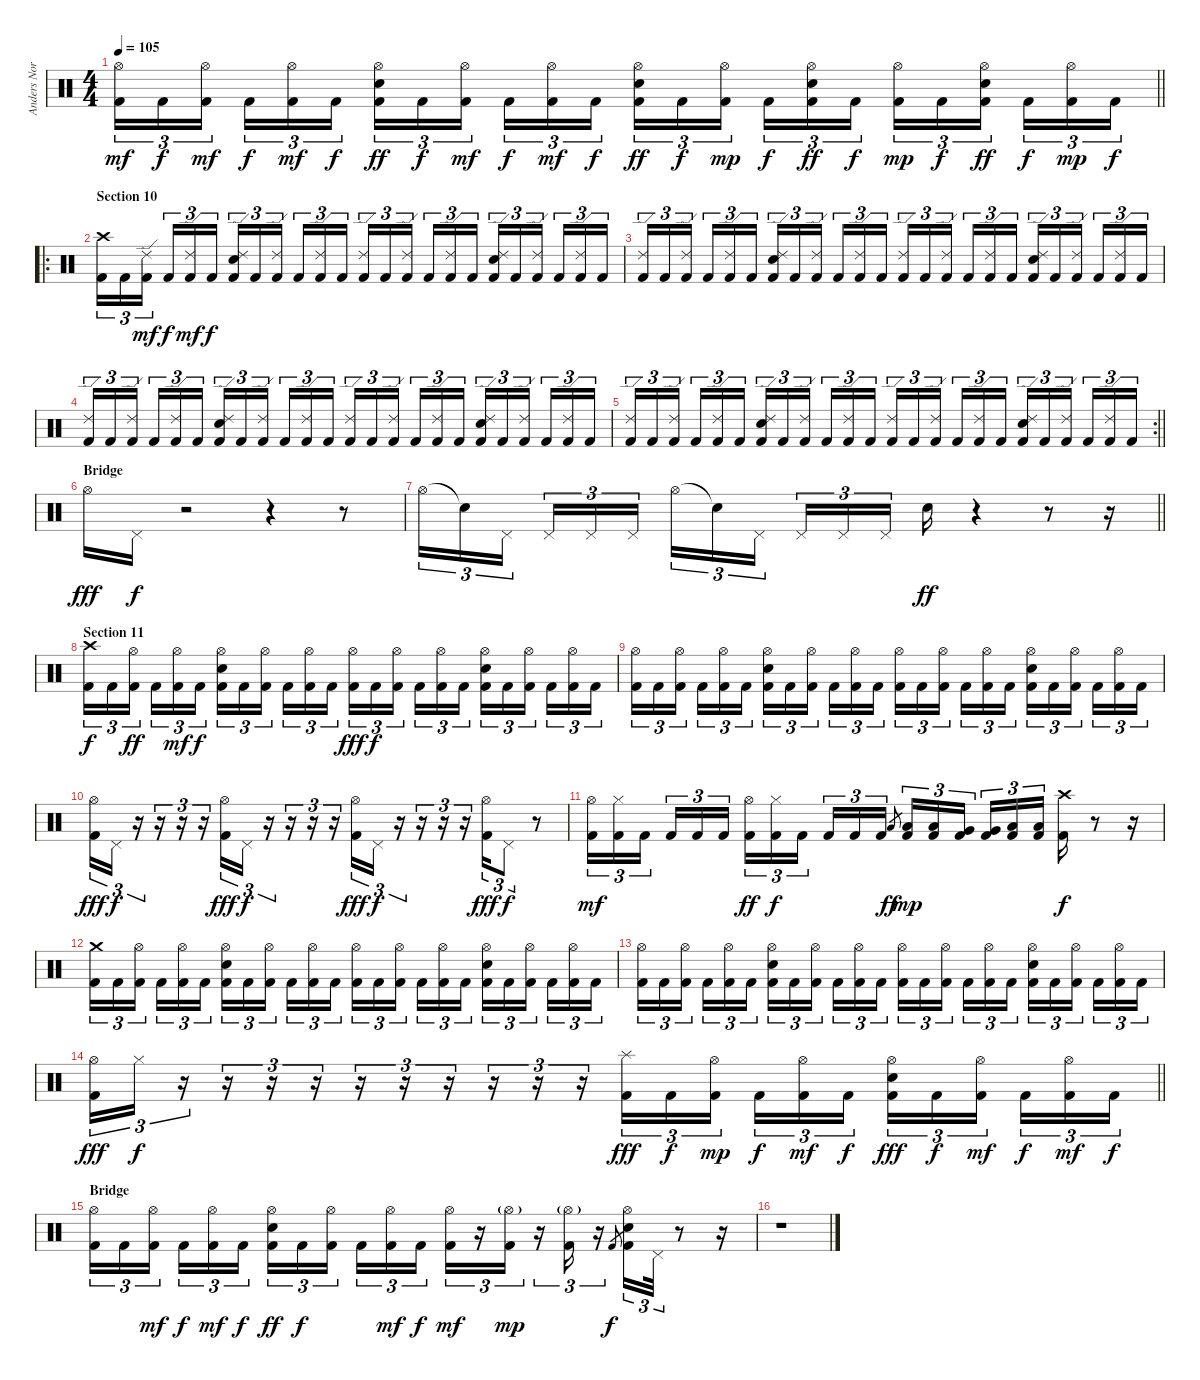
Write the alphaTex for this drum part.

\track ("Anders Nordin" "Anders Nor") {instrument percussion}
\staff {score}
\articulation defaults
\ts (4 4)
\tempo 105
\clef neutral
\barLineRight lightlight
\ks c
("Hi-Hat (open)" "Kick (hit) 2").16{tu (3 2) dy mf} "Kick (hit) 2".16{tu (3 2) dy f} ("Hi-Hat (open)" "Kick (hit) 2").16{tu (3 2) dy mf beam splitsecondary} "Kick (hit) 2".16{tu (3 2) dy f} ("Hi-Hat (open)" "Kick (hit) 2").16{tu (3 2) dy mf} "Kick (hit) 2".16{tu (3 2) dy f} ("Hi-Hat (open)" "Snare (hit) 2" "Kick (hit) 2").16{tu (3 2) dy ff} "Kick (hit) 2".16{tu (3 2) dy f} ("Hi-Hat (open)" "Kick (hit) 2").16{tu (3 2) dy mf beam splitsecondary} "Kick (hit) 2".16{tu (3 2) dy f} ("Hi-Hat (open)" "Kick (hit) 2").16{tu (3 2) dy mf} "Kick (hit) 2".16{tu (3 2) dy f} ("Hi-Hat (open)" "Snare (hit) 2" "Kick (hit) 2").16{tu (3 2) dy ff} "Kick (hit) 2".16{tu (3 2) dy f} ("Hi-Hat (open)" "Kick (hit) 2").16{tu (3 2) dy mp beam splitsecondary} "Kick (hit) 2".16{tu (3 2) dy f} ("Hi-Hat (open)" "Snare (hit) 2" "Kick (hit) 2").16{tu (3 2) dy ff} "Kick (hit) 2".16{tu (3 2) dy f} ("Hi-Hat (open)" "Kick (hit) 2").16{tu (3 2) dy mp} "Kick (hit) 2".16{tu (3 2) dy f} ("Hi-Hat (open)" "Snare (hit) 2" "Kick (hit) 2").16{tu (3 2) dy ff beam splitsecondary} "Kick (hit) 2".16{tu (3 2) dy f} ("Hi-Hat (open)" "Kick (hit) 2").16{tu (3 2) dy mp} "Kick (hit) 2".16{tu (3 2) dy f} |
\ro
\section ("" "Section 10")
("Crash high (hit)" "Kick (hit) 2").16{tu (3 2)} "Kick (hit) 2".16{tu (3 2)} ("Ride (edge) 2" "Kick (hit) 2").16{tu (3 2) dy mf beam splitsecondary} "Kick (hit) 2".16{tu (3 2) dy f} ("Ride (edge) 2" "Kick (hit) 2").16{tu (3 2) dy mf} "Kick (hit) 2".16{tu (3 2) dy f} ("Ride (edge) 2" "Snare (hit) 2" "Kick (hit) 2").16{tu (3 2)} "Kick (hit) 2".16{tu (3 2)} ("Ride (edge) 2" "Kick (hit) 2").16{tu (3 2) beam splitsecondary} "Kick (hit) 2".16{tu (3 2)} ("Ride (edge) 2" "Kick (hit) 2").16{tu (3 2)} "Kick (hit) 2".16{tu (3 2)} ("Ride (edge) 2" "Kick (hit) 2").16{tu (3 2)} "Kick (hit) 2".16{tu (3 2)} ("Ride (edge) 2" "Kick (hit) 2").16{tu (3 2) beam splitsecondary} "Kick (hit) 2".16{tu (3 2)} ("Ride (edge) 2" "Kick (hit) 2").16{tu (3 2)} "Kick (hit) 2".16{tu (3 2)} ("Ride (edge) 2" "Snare (hit) 2" "Kick (hit) 2").16{tu (3 2)} "Kick (hit) 2".16{tu (3 2)} ("Ride (edge) 2" "Kick (hit) 2").16{tu (3 2) beam splitsecondary} "Kick (hit) 2".16{tu (3 2)} ("Ride (edge) 2" "Kick (hit) 2").16{tu (3 2)} "Kick (hit) 2".16{tu (3 2)} |
("Ride (edge) 2" "Kick (hit) 2").16{tu (3 2)} "Kick (hit) 2".16{tu (3 2)} ("Ride (edge) 2" "Kick (hit) 2").16{tu (3 2) beam splitsecondary} "Kick (hit) 2".16{tu (3 2)} ("Ride (edge) 2" "Kick (hit) 2").16{tu (3 2)} "Kick (hit) 2".16{tu (3 2)} ("Ride (edge) 2" "Snare (hit) 2" "Kick (hit) 2").16{tu (3 2)} "Kick (hit) 2".16{tu (3 2)} ("Ride (edge) 2" "Kick (hit) 2").16{tu (3 2) beam splitsecondary} "Kick (hit) 2".16{tu (3 2)} ("Ride (edge) 2" "Kick (hit) 2").16{tu (3 2)} "Kick (hit) 2".16{tu (3 2)} ("Ride (edge) 2" "Kick (hit) 2").16{tu (3 2)} "Kick (hit) 2".16{tu (3 2)} ("Ride (edge) 2" "Kick (hit) 2").16{tu (3 2) beam splitsecondary} "Kick (hit) 2".16{tu (3 2)} ("Ride (edge) 2" "Kick (hit) 2").16{tu (3 2)} "Kick (hit) 2".16{tu (3 2)} ("Ride (edge) 2" "Snare (hit) 2" "Kick (hit) 2").16{tu (3 2)} "Kick (hit) 2".16{tu (3 2)} ("Ride (edge) 2" "Kick (hit) 2").16{tu (3 2) beam splitsecondary} "Kick (hit) 2".16{tu (3 2)} ("Ride (edge) 2" "Kick (hit) 2").16{tu (3 2)} "Kick (hit) 2".16{tu (3 2)} |
("Ride (edge) 2" "Kick (hit) 2").16{tu (3 2)} "Kick (hit) 2".16{tu (3 2)} ("Ride (edge) 2" "Kick (hit) 2").16{tu (3 2) beam splitsecondary} "Kick (hit) 2".16{tu (3 2)} ("Ride (edge) 2" "Kick (hit) 2").16{tu (3 2)} "Kick (hit) 2".16{tu (3 2)} ("Ride (edge) 2" "Snare (hit) 2" "Kick (hit) 2").16{tu (3 2)} "Kick (hit) 2".16{tu (3 2)} ("Ride (edge) 2" "Kick (hit) 2").16{tu (3 2) beam splitsecondary} "Kick (hit) 2".16{tu (3 2)} ("Ride (edge) 2" "Kick (hit) 2").16{tu (3 2)} "Kick (hit) 2".16{tu (3 2)} ("Ride (edge) 2" "Kick (hit) 2").16{tu (3 2)} "Kick (hit) 2".16{tu (3 2)} ("Ride (edge) 2" "Kick (hit) 2").16{tu (3 2) beam splitsecondary} "Kick (hit) 2".16{tu (3 2)} ("Ride (edge) 2" "Kick (hit) 2").16{tu (3 2)} "Kick (hit) 2".16{tu (3 2)} ("Ride (edge) 2" "Snare (hit) 2" "Kick (hit) 2").16{tu (3 2)} "Kick (hit) 2".16{tu (3 2)} ("Ride (edge) 2" "Kick (hit) 2").16{tu (3 2) beam splitsecondary} "Kick (hit) 2".16{tu (3 2)} ("Ride (edge) 2" "Kick (hit) 2").16{tu (3 2)} "Kick (hit) 2".16{tu (3 2)} |
\rc 2
\barLineRight lightlight
("Ride (edge) 2" "Kick (hit) 2").16{tu (3 2)} "Kick (hit) 2".16{tu (3 2)} ("Ride (edge) 2" "Kick (hit) 2").16{tu (3 2) beam splitsecondary} "Kick (hit) 2".16{tu (3 2)} ("Ride (edge) 2" "Kick (hit) 2").16{tu (3 2)} "Kick (hit) 2".16{tu (3 2)} ("Ride (edge) 2" "Snare (hit) 2" "Kick (hit) 2").16{tu (3 2)} "Kick (hit) 2".16{tu (3 2)} ("Ride (edge) 2" "Kick (hit) 2").16{tu (3 2) beam splitsecondary} "Kick (hit) 2".16{tu (3 2)} ("Ride (edge) 2" "Kick (hit) 2").16{tu (3 2)} "Kick (hit) 2".16{tu (3 2)} ("Ride (edge) 2" "Kick (hit) 2").16{tu (3 2)} "Kick (hit) 2".16{tu (3 2)} ("Ride (edge) 2" "Kick (hit) 2").16{tu (3 2) beam splitsecondary} "Kick (hit) 2".16{tu (3 2)} ("Ride (edge) 2" "Kick (hit) 2").16{tu (3 2)} "Kick (hit) 2".16{tu (3 2)} ("Ride (edge) 2" "Snare (hit) 2" "Kick (hit) 2").16{tu (3 2)} "Kick (hit) 2".16{tu (3 2)} ("Ride (edge) 2" "Kick (hit) 2").16{tu (3 2) beam splitsecondary} "Kick (hit) 2".16{tu (3 2)} ("Ride (edge) 2" "Kick (hit) 2").16{tu (3 2)} "Kick (hit) 2".16{tu (3 2)} |
\section ("" "Bridge")
"Hi-Hat (open)".16{dy fff} "Pedal Hi-Hat (hit)".16{dy f} r.2 r.4 r.8 |
\barLineRight lightlight "Hi-Hat (open)".16{tu (3 2)} "Snare (hit)"{t}.16{tu (3 2)} "Pedal Hi-Hat (hit)".16{tu (3 2) beam splitsecondary} "Pedal Hi-Hat (hit)".16{tu (3 2)} "Pedal Hi-Hat (hit)".16{tu (3 2)} "Pedal Hi-Hat (hit)".16{tu (3 2)} "Hi-Hat (open)".16{tu (3 2)} "Snare (hit)"{t}.16{tu (3 2)} "Pedal Hi-Hat (hit)".16{tu (3 2) beam splitsecondary} "Pedal Hi-Hat (hit)".16{tu (3 2)} "Pedal Hi-Hat (hit)".16{tu (3 2)} "Pedal Hi-Hat (hit)".16{tu (3 2)} "Snare (hit) 2".16{dy ff}
r.4 r.8 r.16 |
\section ("" "Section 11")
("Crash high (hit)" "Kick (hit) 2").16{tu (3 2) dy f} "Kick (hit) 2".16{tu (3 2)} ("Hi-Hat (open)" "Kick (hit) 2").16{tu (3 2) dy ff beam splitsecondary} "Kick (hit) 2".16{tu (3 2)} ("Hi-Hat (open)" "Kick (hit) 2").16{tu (3 2) dy mf} "Kick (hit) 2".16{tu (3 2) dy f} ("Hi-Hat (open)" "Snare (hit) 2" "Kick (hit) 2").16{tu (3 2)} "Kick (hit) 2".16{tu (3 2)} ("Hi-Hat (open)" "Kick (hit) 2").16{tu (3 2) beam splitsecondary} "Kick (hit) 2".16{tu (3 2)} ("Hi-Hat (open)" "Kick (hit) 2").16{tu (3 2)} "Kick (hit) 2".16{tu (3 2)} ("Hi-Hat (open)" "Kick (hit) 2").16{tu (3 2) dy fff} "Kick (hit) 2".16{tu (3 2) dy f} ("Hi-Hat (open)" "Kick (hit) 2").16{tu (3 2) beam splitsecondary} "Kick (hit) 2".16{tu (3 2)} ("Hi-Hat (open)" "Kick (hit) 2").16{tu (3 2)} "Kick (hit) 2".16{tu (3 2)} ("Hi-Hat (open)" "Snare (hit) 2" "Kick (hit) 2").16{tu (3 2)} "Kick (hit) 2".16{tu (3 2)} ("Hi-Hat (open)" "Kick (hit) 2").16{tu (3 2) beam splitsecondary} "Kick (hit) 2".16{tu (3 2)} ("Hi-Hat (open)" "Kick (hit) 2").16{tu (3 2)} "Kick (hit) 2".16{tu (3 2)} |
("Hi-Hat (open)" "Kick (hit) 2").16{tu (3 2)} "Kick (hit) 2".16{tu (3 2)} ("Hi-Hat (open)" "Kick (hit) 2").16{tu (3 2) beam splitsecondary} "Kick (hit) 2".16{tu (3 2)} ("Hi-Hat (open)" "Kick (hit) 2").16{tu (3 2)} "Kick (hit) 2".16{tu (3 2)} ("Hi-Hat (open)" "Snare (hit) 2" "Kick (hit) 2").16{tu (3 2)} "Kick (hit) 2".16{tu (3 2)} ("Hi-Hat (open)" "Kick (hit) 2").16{tu (3 2) beam splitsecondary} "Kick (hit) 2".16{tu (3 2)} ("Hi-Hat (open)" "Kick (hit) 2").16{tu (3 2)} "Kick (hit) 2".16{tu (3 2)} ("Hi-Hat (open)" "Kick (hit) 2").16{tu (3 2)} "Kick (hit) 2".16{tu (3 2)} ("Hi-Hat (open)" "Kick (hit) 2").16{tu (3 2) beam splitsecondary} "Kick (hit) 2".16{tu (3 2)} ("Hi-Hat (open)" "Kick (hit) 2").16{tu (3 2)} "Kick (hit) 2".16{tu (3 2)} ("Hi-Hat (open)" "Snare (hit) 2" "Kick (hit) 2").16{tu (3 2)} "Kick (hit) 2".16{tu (3 2)} ("Hi-Hat (open)" "Kick (hit) 2").16{tu (3 2) beam splitsecondary} "Kick (hit) 2".16{tu (3 2)} ("Hi-Hat (open)" "Kick (hit) 2").16{tu (3 2)} "Kick (hit) 2".16{tu (3 2)} |
("Hi-Hat (open)" "Kick (hit) 2").16{tu (3 2) dy fff} "Pedal Hi-Hat (hit)".16{tu (3 2) dy f} r.16{tu (3 2)} r.16{tu (3 2)} r.16{tu (3 2)} r.16{tu (3 2)} ("Hi-Hat (open)" "Kick (hit) 2").16{tu (3 2) dy fff} "Pedal Hi-Hat (hit)".16{tu (3 2) dy f} r.16{tu (3 2)} r.16{tu (3 2)} r.16{tu (3 2)} r.16{tu (3 2)} ("Hi-Hat (open)" "Kick (hit) 2").16{tu (3 2) dy fff} "Pedal Hi-Hat (hit)".16{tu (3 2) dy f} r.16{tu (3 2)} r.16{tu (3 2)} r.16{tu (3 2)} r.16{tu (3 2)} ("Hi-Hat (open)" "Kick (hit) 2").16{tu (3 2) dy fff} "Pedal Hi-Hat (hit)".8{tu (3 2) dy f} r.8 |
("Hi-Hat (open)" "Kick (hit) 2").16{tu (3 2) dy mf} ("Hi-Hat (closed)" "Kick (hit) 2").16{tu (3 2)} "Kick (hit) 2".16{tu (3 2) beam splitsecondary} "Kick (hit) 2".16{tu (3 2)} "Kick (hit) 2".16{tu (3 2)} "Kick (hit) 2".16{tu (3 2)} ("Hi-Hat (open)" "Kick (hit) 2").16{tu (3 2) dy ff} ("Hi-Hat (closed)" "Kick (hit) 2").16{tu (3 2) dy f} "Kick (hit) 2".16{tu (3 2) beam splitsecondary} "Kick (hit) 2".16{tu (3 2)} "Kick (hit) 2".16{tu (3 2)} "Kick (hit) 2".16{tu (3 2)} "Low Tom (hit)".8{gr dy ff} ("Low Tom (hit)" "Kick (hit) 2").16{tu (3 2) dy mp} ("Low Tom (hit)" "Kick (hit) 2").16{tu (3 2)} ("Very Low Tom (hit)" "Kick (hit) 2").16{tu (3 2) beam splitsecondary} ("Very Low Tom (hit)" "Kick (hit) 2").16{tu (3 2)} ("Low Floor Tom (hit)" "Kick (hit) 2").16{tu (3 2)} ("Low Floor Tom (hit)" "Kick (hit) 2").16{tu (3 2)} ("Crash high (hit)" "Kick (hit) 2").16{dy f} r.8 r.16 |
("Crash medium (hit)" "Kick (hit) 2").16{tu (3 2)} "Kick (hit) 2".16{tu (3 2)} ("Hi-Hat (open)" "Kick (hit) 2").16{tu (3 2) beam splitsecondary} "Kick (hit) 2".16{tu (3 2)} ("Hi-Hat (open)" "Kick (hit) 2").16{tu (3 2)} "Kick (hit) 2".16{tu (3 2)} ("Hi-Hat (open)" "Snare (hit) 2" "Kick (hit) 2").16{tu (3 2)} "Kick (hit) 2".16{tu (3 2)} ("Hi-Hat (open)" "Kick (hit) 2").16{tu (3 2) beam splitsecondary} "Kick (hit) 2".16{tu (3 2)} ("Hi-Hat (open)" "Kick (hit) 2").16{tu (3 2)} "Kick (hit) 2".16{tu (3 2)} ("Hi-Hat (open)" "Kick (hit) 2").16{tu (3 2)} "Kick (hit) 2".16{tu (3 2)} ("Hi-Hat (open)" "Kick (hit) 2").16{tu (3 2) beam splitsecondary} "Kick (hit) 2".16{tu (3 2)} ("Hi-Hat (open)" "Kick (hit) 2").16{tu (3 2)} "Kick (hit) 2".16{tu (3 2)} ("Hi-Hat (open)" "Snare (hit) 2" "Kick (hit) 2").16{tu (3 2)} "Kick (hit) 2".16{tu (3 2)} ("Hi-Hat (open)" "Kick (hit) 2").16{tu (3 2) beam splitsecondary} "Kick (hit) 2".16{tu (3 2)} ("Hi-Hat (open)" "Kick (hit) 2").16{tu (3 2)} "Kick (hit) 2".16{tu (3 2)} |
("Hi-Hat (open)" "Kick (hit) 2").16{tu (3 2)} "Kick (hit) 2".16{tu (3 2)} ("Hi-Hat (open)" "Kick (hit) 2").16{tu (3 2) beam splitsecondary} "Kick (hit) 2".16{tu (3 2)} ("Hi-Hat (open)" "Kick (hit) 2").16{tu (3 2)} "Kick (hit) 2".16{tu (3 2)} ("Hi-Hat (open)" "Snare (hit) 2" "Kick (hit) 2").16{tu (3 2)} "Kick (hit) 2".16{tu (3 2)} ("Hi-Hat (open)" "Kick (hit) 2").16{tu (3 2) beam splitsecondary} "Kick (hit) 2".16{tu (3 2)} ("Hi-Hat (open)" "Kick (hit) 2").16{tu (3 2)} "Kick (hit) 2".16{tu (3 2)} ("Hi-Hat (open)" "Kick (hit) 2").16{tu (3 2)} "Kick (hit) 2".16{tu (3 2)} ("Hi-Hat (open)" "Kick (hit) 2").16{tu (3 2) beam splitsecondary} "Kick (hit) 2".16{tu (3 2)} ("Hi-Hat (open)" "Kick (hit) 2").16{tu (3 2)} "Kick (hit) 2".16{tu (3 2)} ("Hi-Hat (open)" "Snare (hit) 2" "Kick (hit) 2").16{tu (3 2)} "Kick (hit) 2".16{tu (3 2)} ("Hi-Hat (open)" "Kick (hit) 2").16{tu (3 2) beam splitsecondary} "Kick (hit) 2".16{tu (3 2)} ("Hi-Hat (open)" "Kick (hit) 2").16{tu (3 2)} "Kick (hit) 2".16{tu (3 2)} |
\barLineRight lightlight
("Hi-Hat (open)" "Kick (hit) 2").16{tu (3 2) dy fff} "Hi-Hat (closed)".16{tu (3 2) dy f} r.16{tu (3 2)} r.16{tu (3 2)} r.16{tu (3 2)} r.16{tu (3 2)} r.16{tu (3 2)} r.16{tu (3 2)} r.16{tu (3 2)} r.16{tu (3 2)} r.16{tu (3 2)} r.16{tu (3 2)} ("Splash (hit)" "Kick (hit) 2").16{tu (3 2) dy fff} "Kick (hit) 2".16{tu (3 2) dy f} ("Hi-Hat (open)" "Kick (hit) 2").16{tu (3 2) dy mp beam splitsecondary} "Kick (hit) 2".16{tu (3 2) dy f} ("Hi-Hat (open)" "Kick (hit) 2").16{tu (3 2) dy mf} "Kick (hit) 2".16{tu (3 2) dy f} ("Hi-Hat (open)" "Snare (hit) 2" "Kick (hit) 2").16{tu (3 2) dy fff} "Kick (hit) 2".16{tu (3 2) dy f} ("Hi-Hat (open)" "Kick (hit) 2").16{tu (3 2) dy mf beam splitsecondary} "Kick (hit) 2".16{tu (3 2) dy f} ("Hi-Hat (open)" "Kick (hit) 2").16{tu (3 2) dy mf} "Kick (hit) 2".16{tu (3 2) dy f} |
\section ("" "Bridge")
("Hi-Hat (open)" "Kick (hit) 2").16{tu (3 2)} "Kick (hit) 2".16{tu (3 2)} ("Hi-Hat (open)" "Kick (hit) 2").16{tu (3 2) dy mf beam splitsecondary} "Kick (hit) 2".16{tu (3 2) dy f} ("Hi-Hat (open)" "Kick (hit) 2").16{tu (3 2) dy mf} "Kick (hit) 2".16{tu (3 2) dy f} ("Hi-Hat (open)" "Snare (hit) 2" "Kick (hit) 2").16{tu (3 2) dy ff} "Kick (hit) 2".16{tu (3 2) dy f} ("Hi-Hat (open)" "Kick (hit) 2").16{tu (3 2) beam splitsecondary} "Kick (hit) 2".16{tu (3 2)} ("Hi-Hat (open)" "Kick (hit) 2").16{tu (3 2) dy mf} "Kick (hit) 2".16{tu (3 2) dy f} ("Hi-Hat (open)" "Kick (hit) 2").16{tu (3 2) dy mf} r.16{tu (3 2)} ("Hi-Hat (open)"{g} "Kick (hit) 2").16{tu (3 2) dy mp} r.16{tu (3 2)} ("Hi-Hat (open)"{g} "Kick (hit) 2").16{tu (3 2)} r.16{tu (3 2)} "Kick (hit) 2".8{gr dy f} ("Hi-Hat (open)" "Snare (hit) 2" "Kick (hit) 2").16{tu (3 2)} "Pedal Hi-Hat (hit)".32{tu (3 2)} r.8 r.16 |
r.1
